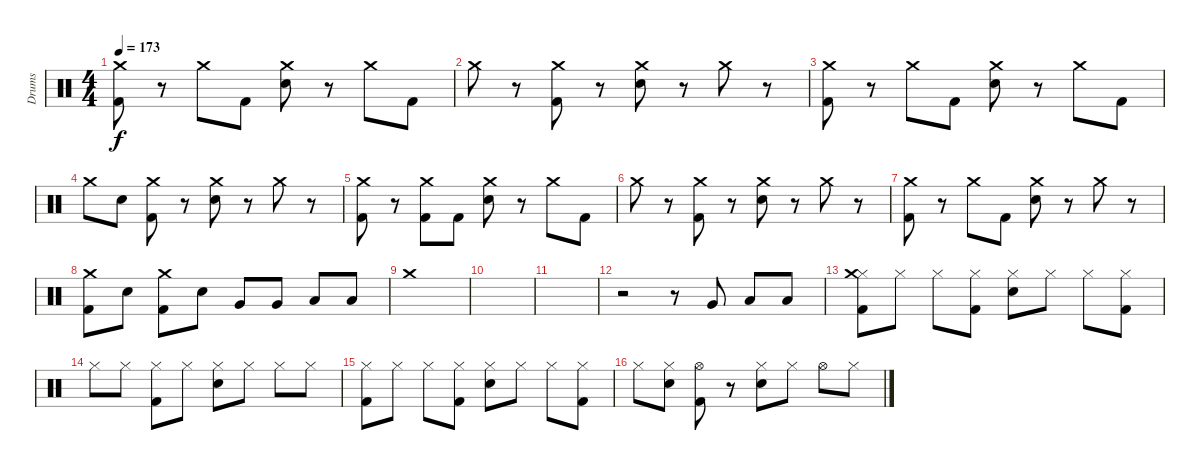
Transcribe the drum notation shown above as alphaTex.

\track ("Drums" "Drums") {instrument percussion}
\staff {score}
\articulation defaults
\ts (4 4)
\tempo 173
\clef neutral
\ks c
("Kick (hit) 2" "Crash medium (hit)").8{dy f} r.8 "Crash medium (hit)".8 "Kick (hit) 2".8 ("Electric Snare (hit)" "Crash medium (hit)").8 r.8 "Crash medium (hit)".8 "Kick (hit) 2".8 |
"Crash medium (hit)".8 r.8 ("Kick (hit) 2" "Crash medium (hit)").8 r.8 ("Electric Snare (hit)" "Crash medium (hit)").8 r.8 "Crash medium (hit)".8 r.8 |
("Kick (hit) 2" "Crash medium (hit)").8 r.8 "Crash medium (hit)".8 "Kick (hit) 2".8 ("Electric Snare (hit)" "Crash medium (hit)").8 r.8 "Crash medium (hit)".8 "Kick (hit) 2".8 |
"Crash medium (hit)".8 "Electric Snare (hit)".8 ("Kick (hit) 2" "Crash medium (hit)").8 r.8 ("Electric Snare (hit)" "Crash medium (hit)").8 r.8 "Crash medium (hit)".8 r.8 |
("Kick (hit) 2" "Crash medium (hit)").8 r.8 ("Kick (hit) 2" "Crash medium (hit)").8 "Kick (hit) 2".8 ("Electric Snare (hit)" "Crash medium (hit)").8 r.8 "Crash medium (hit)".8 "Kick (hit) 2".8 |
"Crash medium (hit)".8 r.8 ("Kick (hit) 2" "Crash medium (hit)").8 r.8 ("Electric Snare (hit)" "Crash medium (hit)").8 r.8 "Crash medium (hit)".8 r.8 |
("Kick (hit) 2" "Crash medium (hit)").8 r.8 "Crash medium (hit)".8 "Kick (hit) 2".8 ("Electric Snare (hit)" "Crash medium (hit)").8 r.8 "Crash medium (hit)".8 r.8 |
("Kick (hit) 2" "Crash medium (hit)").8 "Electric Snare (hit)".8 ("Kick (hit) 2" "Crash medium (hit)").8 "Electric Snare (hit)".8 "Very Low Tom (hit)".8 "Very Low Tom (hit)".8 "Low Floor Tom (hit)".8 "Low Floor Tom (hit)".8 |
"Crash medium (hit)".1 |
|
|
r.2 r.8 "Very Low Tom (hit)".8 "Low Floor Tom (hit)".8 "Low Floor Tom (hit)".8 |
("Hi-Hat (closed)" "Kick (hit) 2" "Crash medium (hit)").8 "Hi-Hat (closed)".8 "Hi-Hat (closed)".8 ("Hi-Hat (closed)" "Kick (hit) 2").8 ("Hi-Hat (closed)" "Electric Snare (hit)").8 "Hi-Hat (closed)".8 "Hi-Hat (closed)".8 ("Hi-Hat (closed)" "Kick (hit) 2").8 |
"Hi-Hat (closed)".8 "Hi-Hat (closed)".8 ("Hi-Hat (closed)" "Kick (hit) 2").8 "Hi-Hat (closed)".8 ("Hi-Hat (closed)" "Electric Snare (hit)").8 "Hi-Hat (closed)".8 "Hi-Hat (closed)".8 "Hi-Hat (closed)".8 |
("Hi-Hat (closed)" "Kick (hit) 2").8 "Hi-Hat (closed)".8 "Hi-Hat (closed)".8 ("Hi-Hat (closed)" "Kick (hit) 2").8 ("Hi-Hat (closed)" "Electric Snare (hit)").8 "Hi-Hat (closed)".8 "Hi-Hat (closed)".8 ("Hi-Hat (closed)" "Kick (hit) 2").8 |
"Hi-Hat (closed)".8 ("Hi-Hat (closed)" "Electric Snare (hit)").8 ("Hi-Hat (open)" "Kick (hit) 2").8 r.8 ("Hi-Hat (closed)" "Electric Snare (hit)").8 "Hi-Hat (closed)".8 "Hi-Hat (open)".8 "Hi-Hat (closed)".8
